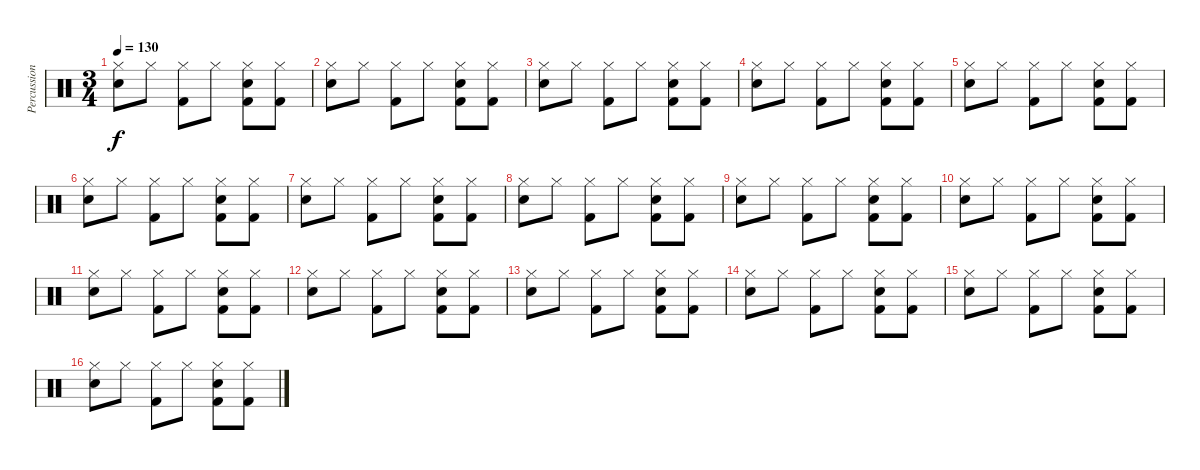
\track ("Percussion" "Percussion") {instrument percussion}
\staff {score}
\articulation defaults
\ts (3 4)
\tempo 130
\clef neutral
\ks c
("Hi-Hat (closed)" "Snare (hit) 2").8{dy f} "Hi-Hat (closed)".8 ("Hi-Hat (closed)" "Kick (hit) 2").8 "Hi-Hat (closed)".8 ("Hi-Hat (closed)" "Snare (hit) 2" "Kick (hit) 2").8 ("Hi-Hat (closed)" "Kick (hit) 2").8 |
("Hi-Hat (closed)" "Snare (hit) 2").8 "Hi-Hat (closed)".8 ("Hi-Hat (closed)" "Kick (hit) 2").8 "Hi-Hat (closed)".8 ("Hi-Hat (closed)" "Snare (hit) 2" "Kick (hit) 2").8 ("Hi-Hat (closed)" "Kick (hit) 2").8 |
("Hi-Hat (closed)" "Snare (hit) 2").8 "Hi-Hat (closed)".8 ("Hi-Hat (closed)" "Kick (hit) 2").8 "Hi-Hat (closed)".8 ("Hi-Hat (closed)" "Snare (hit) 2" "Kick (hit) 2").8 ("Hi-Hat (closed)" "Kick (hit) 2").8 |
("Hi-Hat (closed)" "Snare (hit) 2").8 "Hi-Hat (closed)".8 ("Hi-Hat (closed)" "Kick (hit) 2").8 "Hi-Hat (closed)".8 ("Hi-Hat (closed)" "Snare (hit) 2" "Kick (hit) 2").8 ("Hi-Hat (closed)" "Kick (hit) 2").8 |
("Hi-Hat (closed)" "Snare (hit) 2").8 "Hi-Hat (closed)".8 ("Hi-Hat (closed)" "Kick (hit) 2").8 "Hi-Hat (closed)".8 ("Hi-Hat (closed)" "Snare (hit) 2" "Kick (hit) 2").8 ("Hi-Hat (closed)" "Kick (hit) 2").8 |
("Hi-Hat (closed)" "Snare (hit) 2").8 "Hi-Hat (closed)".8 ("Hi-Hat (closed)" "Kick (hit) 2").8 "Hi-Hat (closed)".8 ("Hi-Hat (closed)" "Snare (hit) 2" "Kick (hit) 2").8 ("Hi-Hat (closed)" "Kick (hit) 2").8 |
("Hi-Hat (closed)" "Snare (hit) 2").8 "Hi-Hat (closed)".8 ("Hi-Hat (closed)" "Kick (hit) 2").8 "Hi-Hat (closed)".8 ("Hi-Hat (closed)" "Snare (hit) 2" "Kick (hit) 2").8 ("Hi-Hat (closed)" "Kick (hit) 2").8 |
("Hi-Hat (closed)" "Snare (hit) 2").8 "Hi-Hat (closed)".8 ("Hi-Hat (closed)" "Kick (hit) 2").8 "Hi-Hat (closed)".8 ("Hi-Hat (closed)" "Snare (hit) 2" "Kick (hit) 2").8 ("Hi-Hat (closed)" "Kick (hit) 2").8 |
("Hi-Hat (closed)" "Snare (hit) 2").8 "Hi-Hat (closed)".8 ("Hi-Hat (closed)" "Kick (hit) 2").8 "Hi-Hat (closed)".8 ("Hi-Hat (closed)" "Snare (hit) 2" "Kick (hit) 2").8 ("Hi-Hat (closed)" "Kick (hit) 2").8 |
("Hi-Hat (closed)" "Snare (hit) 2").8 "Hi-Hat (closed)".8 ("Hi-Hat (closed)" "Kick (hit) 2").8 "Hi-Hat (closed)".8 ("Hi-Hat (closed)" "Snare (hit) 2" "Kick (hit) 2").8 ("Hi-Hat (closed)" "Kick (hit) 2").8 |
("Hi-Hat (closed)" "Snare (hit) 2").8 "Hi-Hat (closed)".8 ("Hi-Hat (closed)" "Kick (hit) 2").8 "Hi-Hat (closed)".8 ("Hi-Hat (closed)" "Snare (hit) 2" "Kick (hit) 2").8 ("Hi-Hat (closed)" "Kick (hit) 2").8 |
("Hi-Hat (closed)" "Snare (hit) 2").8 "Hi-Hat (closed)".8 ("Hi-Hat (closed)" "Kick (hit) 2").8 "Hi-Hat (closed)".8 ("Hi-Hat (closed)" "Snare (hit) 2" "Kick (hit) 2").8 ("Hi-Hat (closed)" "Kick (hit) 2").8 |
("Hi-Hat (closed)" "Snare (hit) 2").8 "Hi-Hat (closed)".8 ("Hi-Hat (closed)" "Kick (hit) 2").8 "Hi-Hat (closed)".8 ("Hi-Hat (closed)" "Snare (hit) 2" "Kick (hit) 2").8 ("Hi-Hat (closed)" "Kick (hit) 2").8 |
("Hi-Hat (closed)" "Snare (hit) 2").8 "Hi-Hat (closed)".8 ("Hi-Hat (closed)" "Kick (hit) 2").8 "Hi-Hat (closed)".8 ("Hi-Hat (closed)" "Snare (hit) 2" "Kick (hit) 2").8 ("Hi-Hat (closed)" "Kick (hit) 2").8 |
("Hi-Hat (closed)" "Snare (hit) 2").8 "Hi-Hat (closed)".8 ("Hi-Hat (closed)" "Kick (hit) 2").8 "Hi-Hat (closed)".8 ("Hi-Hat (closed)" "Snare (hit) 2" "Kick (hit) 2").8 ("Hi-Hat (closed)" "Kick (hit) 2").8 |
("Hi-Hat (closed)" "Snare (hit) 2").8 "Hi-Hat (closed)".8 ("Hi-Hat (closed)" "Kick (hit) 2").8 "Hi-Hat (closed)".8 ("Hi-Hat (closed)" "Snare (hit) 2" "Kick (hit) 2").8 ("Hi-Hat (closed)" "Kick (hit) 2").8
